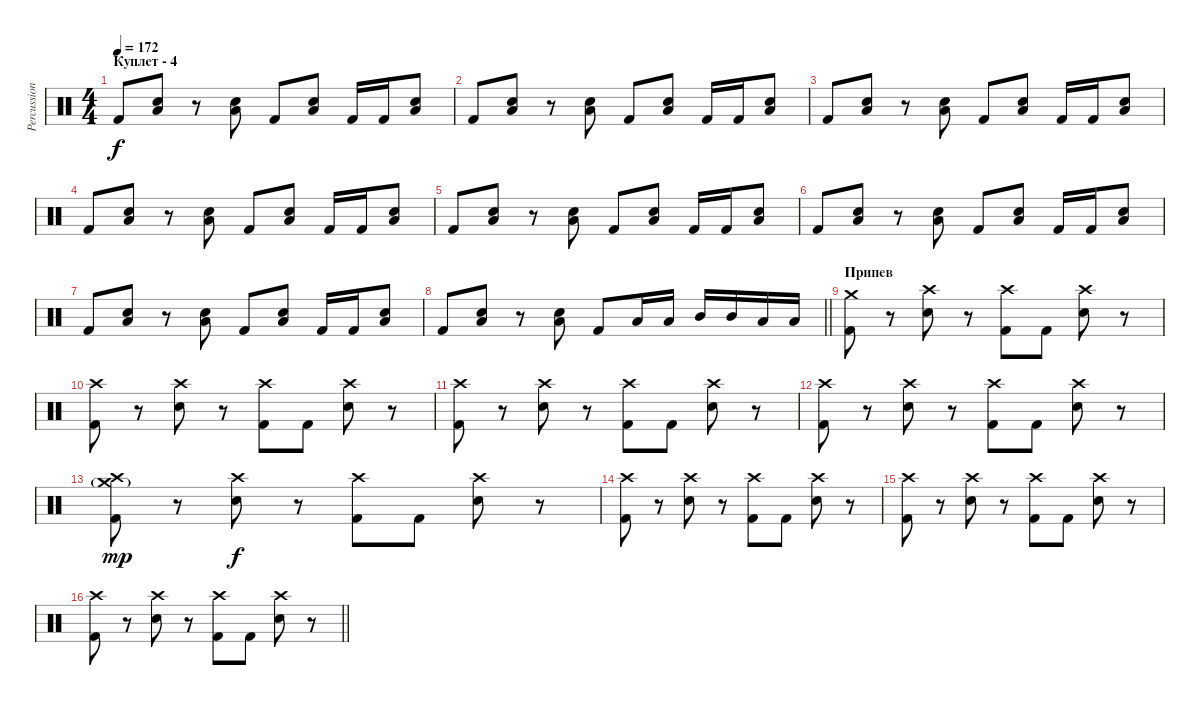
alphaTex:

\track ("Percussion" "Percussion") {instrument percussion}
\staff {score}
\articulation defaults
\ts (4 4)
\section ("" "Куплет - 4")
\tempo 172
\clef neutral
\ks c "Kick (hit) 2".8{dy f}
("Low Floor Tom (hit)" "Snare (hit) 2").8 r.8 ("Low Tom (hit)" "Snare (hit) 2").8 "Kick (hit) 2".8 ("Low Floor Tom (hit)" "Snare (hit) 2").8 "Kick (hit) 2".16 "Kick (hit) 2".16 ("Low Floor Tom (hit)" "Snare (hit) 2").8 |
"Kick (hit) 2".8 ("Low Floor Tom (hit)" "Snare (hit) 2").8 r.8 ("Low Tom (hit)" "Snare (hit) 2").8 "Kick (hit) 2".8 ("Low Floor Tom (hit)" "Snare (hit) 2").8 "Kick (hit) 2".16 "Kick (hit) 2".16 ("Low Floor Tom (hit)" "Snare (hit) 2").8 |
"Kick (hit) 2".8 ("Low Floor Tom (hit)" "Snare (hit) 2").8 r.8 ("Low Tom (hit)" "Snare (hit) 2").8 "Kick (hit) 2".8 ("Low Floor Tom (hit)" "Snare (hit) 2").8 "Kick (hit) 2".16 "Kick (hit) 2".16 ("Low Floor Tom (hit)" "Snare (hit) 2").8 |
"Kick (hit) 2".8 ("Low Floor Tom (hit)" "Snare (hit) 2").8 r.8 ("Low Tom (hit)" "Snare (hit) 2").8 "Kick (hit) 2".8 ("Low Floor Tom (hit)" "Snare (hit) 2").8 "Kick (hit) 2".16 "Kick (hit) 2".16 ("Low Floor Tom (hit)" "Snare (hit) 2").8 |
"Kick (hit) 2".8 ("Low Floor Tom (hit)" "Snare (hit) 2").8 r.8 ("Low Tom (hit)" "Snare (hit) 2").8 "Kick (hit) 2".8 ("Low Floor Tom (hit)" "Snare (hit) 2").8 "Kick (hit) 2".16 "Kick (hit) 2".16 ("Low Floor Tom (hit)" "Snare (hit) 2").8 |
"Kick (hit) 2".8 ("Low Floor Tom (hit)" "Snare (hit) 2").8 r.8 ("Low Tom (hit)" "Snare (hit) 2").8 "Kick (hit) 2".8 ("Low Floor Tom (hit)" "Snare (hit) 2").8 "Kick (hit) 2".16 "Kick (hit) 2".16 ("Low Floor Tom (hit)" "Snare (hit) 2").8 |
"Kick (hit) 2".8 ("Low Floor Tom (hit)" "Snare (hit) 2").8 r.8 ("Low Tom (hit)" "Snare (hit) 2").8 "Kick (hit) 2".8 ("Low Floor Tom (hit)" "Snare (hit) 2").8 "Kick (hit) 2".16 "Kick (hit) 2".16 ("Low Floor Tom (hit)" "Snare (hit) 2").8 |
\barLineRight lightlight "Kick (hit) 2".8
("Low Floor Tom (hit)" "Snare (hit) 2").8 r.8 ("Low Tom (hit)" "Snare (hit) 2").8 "Kick (hit) 2".8 "Low Tom (hit)".16 "Low Tom (hit)".16 "Mid Tom (hit)".16 "Mid Tom (hit)".16 "Low Floor Tom (hit)".16 "Low Floor Tom (hit)".16 |
\section ("" "Припев")
("Crash medium (hit)" "Kick (hit) 2").8 r.8 ("Crash high (hit)" "Snare (hit) 2").8 r.8 ("Crash high (hit)" "Kick (hit) 2").8 "Kick (hit) 2".8 ("Crash high (hit)" "Snare (hit) 2").8 r.8 |
("Crash high (hit)" "Kick (hit) 2").8 r.8 ("Crash high (hit)" "Snare (hit) 2").8 r.8 ("Crash high (hit)" "Kick (hit) 2").8 "Kick (hit) 2".8 ("Crash high (hit)" "Snare (hit) 2").8 r.8 |
("Crash high (hit)" "Kick (hit) 2").8 r.8 ("Crash high (hit)" "Snare (hit) 2").8 r.8 ("Crash high (hit)" "Kick (hit) 2").8 "Kick (hit) 2".8 ("Crash high (hit)" "Snare (hit) 2").8 r.8 |
("Crash high (hit)" "Kick (hit) 2").8 r.8 ("Crash high (hit)" "Snare (hit) 2").8 r.8 ("Crash high (hit)" "Kick (hit) 2").8 "Kick (hit) 2".8 ("Crash high (hit)" "Snare (hit) 2").8 r.8 |
("Crash high (hit)" "Crash medium (hit)"{g} "Kick (hit) 2").8{dy mp} r.8 ("Crash high (hit)" "Snare (hit) 2").8{dy f} r.8 ("Crash high (hit)" "Kick (hit) 2").8 "Kick (hit) 2".8 ("Crash high (hit)" "Snare (hit) 2").8 r.8 |
("Crash high (hit)" "Kick (hit) 2").8 r.8 ("Crash high (hit)" "Snare (hit) 2").8 r.8 ("Crash high (hit)" "Kick (hit) 2").8 "Kick (hit) 2".8 ("Crash high (hit)" "Snare (hit) 2").8 r.8 |
("Crash high (hit)" "Kick (hit) 2").8 r.8 ("Crash high (hit)" "Snare (hit) 2").8 r.8 ("Crash high (hit)" "Kick (hit) 2").8 "Kick (hit) 2".8 ("Crash high (hit)" "Snare (hit) 2").8 r.8 |
\barLineRight lightlight
("Crash high (hit)" "Kick (hit) 2").8 r.8 ("Crash high (hit)" "Snare (hit) 2").8 r.8 ("Crash high (hit)" "Kick (hit) 2").8 "Kick (hit) 2".8 ("Crash high (hit)" "Snare (hit) 2").8 r.8
